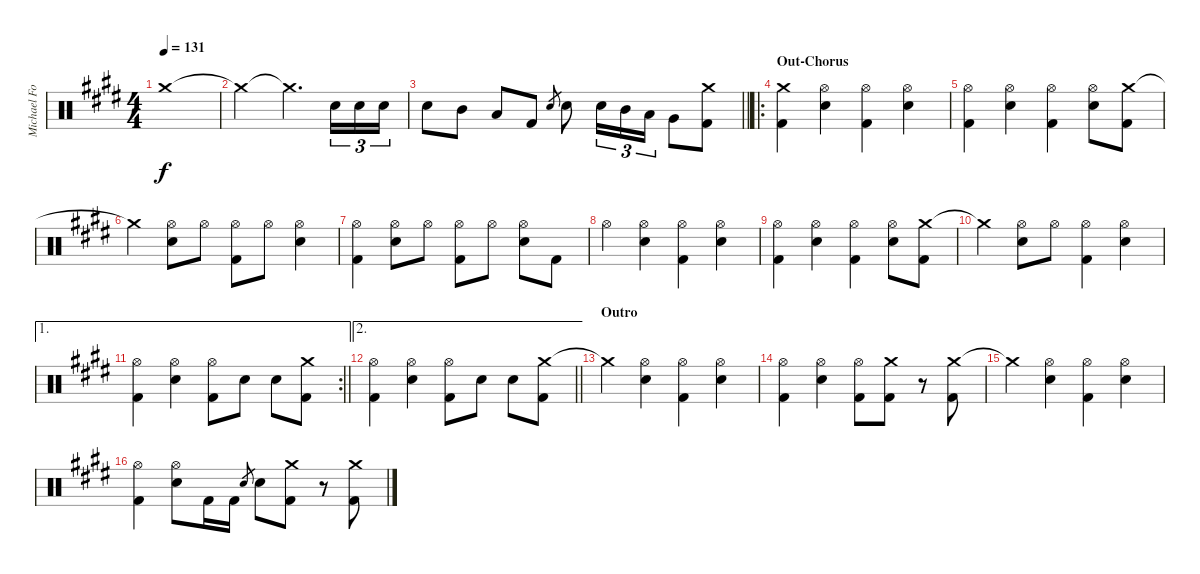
\track ("Michael Foster Drums" "Michael Fo") {instrument percussion}
\staff {score}
\articulation defaults
\ts (4 4)
\tempo 131
\clef neutral
\ks e "Crash medium (hit)"{t}.1{dy f}
|
"Crash medium (hit)"{t}.2 "Crash medium (hit)"{t}.4{d} "Snare (hit) 2".16{tu (3 2)} "Snare (hit) 2".16{tu (3 2)} "Snare (hit) 2".16{tu (3 2)} |
\barLineRight lightlight "Snare (hit) 2".8 "Mid Tom (hit)".8 "Low Tom (hit)".8 "Kick (hit) 2".8 "Snare (hit) 2".8{gr} "Snare (hit) 2".8 "Snare (hit) 2".16{tu (3 2)} "Mid Tom (hit)".16{tu (3 2)} "Low Tom (hit)".16{tu (3 2)} "Very Low Tom (hit)".8
("Crash medium (hit)" "Kick (hit) 2").8 |
\ro
\section ("" "Out-Chorus")
("Crash medium (hit)" "Kick (hit) 2").4 ("Hi-Hat (open)" "Snare (hit) 2").4 ("Hi-Hat (open)" "Kick (hit) 2").4 ("Hi-Hat (open)" "Snare (hit) 2").4 |
("Hi-Hat (open)" "Kick (hit) 2").4 ("Hi-Hat (open)" "Snare (hit) 2").4 ("Hi-Hat (open)" "Kick (hit) 2").4 ("Hi-Hat (open)" "Snare (hit) 2").8 ("Crash medium (hit)" "Kick (hit) 2").8 |
"Crash medium (hit)"{t}.4 ("Hi-Hat (open)" "Snare (hit) 2").8 "Hi-Hat (open)".8 ("Hi-Hat (open)" "Kick (hit) 2").8 "Hi-Hat (open)".8 ("Hi-Hat (open)" "Snare (hit) 2").4 |
("Hi-Hat (open)" "Kick (hit) 2").4 ("Hi-Hat (open)" "Snare (hit) 2").8 "Hi-Hat (open)".8 ("Hi-Hat (open)" "Kick (hit) 2").8 "Hi-Hat (open)".8 ("Hi-Hat (open)" "Snare (hit) 2").8 "Kick (hit) 2".8 |
"Hi-Hat (open)".4 ("Hi-Hat (open)" "Snare (hit) 2").4 ("Hi-Hat (open)" "Kick (hit) 2").4 ("Hi-Hat (open)" "Snare (hit) 2").4 |
("Hi-Hat (open)" "Kick (hit) 2").4 ("Hi-Hat (open)" "Snare (hit) 2").4 ("Hi-Hat (open)" "Kick (hit) 2").4 ("Hi-Hat (open)" "Snare (hit) 2").8 ("Crash medium (hit)" "Kick (hit) 2").8 |
"Crash medium (hit)"{t}.4 ("Hi-Hat (open)" "Snare (hit) 2").8 "Hi-Hat (open)".8 ("Hi-Hat (open)" "Kick (hit) 2").4 ("Hi-Hat (open)" "Snare (hit) 2").4 |
\ae 1
\rc 2
\barLineRight lightlight
("Hi-Hat (open)" "Kick (hit) 2").4 ("Hi-Hat (open)" "Snare (hit) 2").4 ("Hi-Hat (open)" "Kick (hit) 2").8 "Snare (hit) 2".8 "Snare (hit) 2".8 ("Crash medium (hit)" "Kick (hit) 2").8 |
\ae 2
\barLineRight lightlight
("Hi-Hat (open)" "Kick (hit) 2").4 ("Hi-Hat (open)" "Snare (hit) 2").4 ("Hi-Hat (open)" "Kick (hit) 2").8 "Snare (hit) 2".8 "Snare (hit) 2".8 ("Crash medium (hit)" "Kick (hit) 2").8 |
\section ("" "Outro")
"Crash medium (hit)"{t}.4 ("Hi-Hat (open)" "Snare (hit) 2").4 ("Hi-Hat (open)" "Kick (hit) 2").4 ("Hi-Hat (open)" "Snare (hit) 2").4 |
("Hi-Hat (open)" "Kick (hit) 2").4 ("Hi-Hat (open)" "Snare (hit) 2").4 ("Hi-Hat (open)" "Kick (hit) 2").8 ("Crash medium (hit)" "Kick (hit) 2").8 r.8 ("Crash medium (hit)" "Kick (hit) 2").8 |
"Crash medium (hit)"{t}.4 ("Hi-Hat (open)" "Snare (hit) 2").4 ("Hi-Hat (open)" "Kick (hit) 2").4 ("Hi-Hat (open)" "Snare (hit) 2").4 |
("Hi-Hat (open)" "Kick (hit) 2").4 ("Hi-Hat (open)" "Snare (hit) 2").8 "Kick (hit) 2".16 "Kick (hit) 2".16 "Snare (hit) 2".8{gr} "Snare (hit) 2".8 ("Crash medium (hit)" "Kick (hit) 2").8 r.8 ("Crash medium (hit)" "Kick (hit) 2").8
